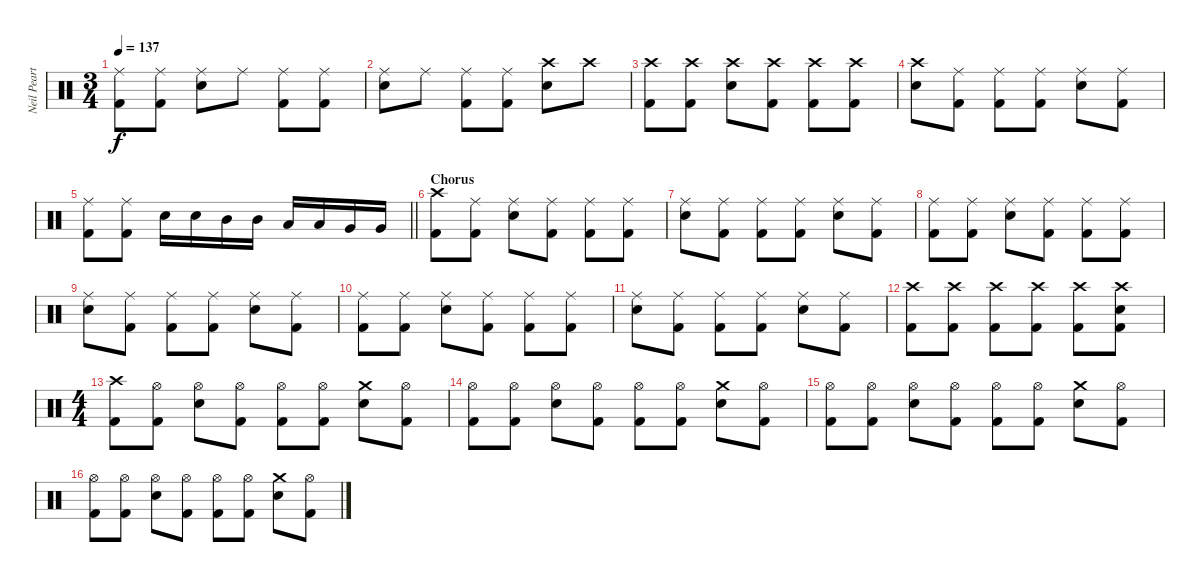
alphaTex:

\track ("Neil Peart" "Neil Peart") {instrument percussion}
\staff {score}
\articulation defaults
\ts (3 4)
\tempo 137
\clef neutral
\ks c
("Ride (middle)" "Kick (hit) 2").8{dy f} ("Ride (middle)" "Kick (hit) 2").8 ("Ride (middle)" "Snare (hit) 2").8 "Ride (middle)".8 ("Ride (middle)" "Kick (hit) 2").8 ("Ride (middle)" "Kick (hit) 2").8 |
("Ride (middle)" "Snare (hit) 2").8 "Ride (middle)".8 ("Ride (middle)" "Kick (hit) 2").8 ("Ride (middle)" "Kick (hit) 2").8 ("Crash high (hit)" "Snare (hit) 2").8 "Crash high (hit)".8 |
("Crash high (hit)" "Kick (hit) 2").8 ("Crash high (hit)" "Kick (hit) 2").8 ("Crash high (hit)" "Snare (hit) 2").8 ("Crash high (hit)" "Kick (hit) 2").8 ("Crash high (hit)" "Kick (hit) 2").8 ("Crash high (hit)" "Kick (hit) 2").8 |
("Crash high (hit)" "Snare (hit) 2").8 ("Ride (middle)" "Kick (hit) 2").8 ("Ride (middle)" "Kick (hit) 2").8 ("Ride (middle)" "Kick (hit) 2").8 ("Ride (middle)" "Snare (hit) 2").8 ("Ride (middle)" "Kick (hit) 2").8 |
\barLineRight lightlight
("Ride (middle)" "Kick (hit) 2").8 ("Ride (middle)" "Kick (hit) 2").8 "Snare (hit) 2".16 "Snare (hit) 2".16 "Mid Tom (hit)".16 "Mid Tom (hit)".16 "Low Tom (hit)".16 "Low Tom (hit)".16 "Very Low Tom (hit)".16 "Very Low Tom (hit)".16 |
\section ("" "Chorus")
("Crash high (hit)" "Kick (hit) 2").8 ("Ride (middle)" "Kick (hit) 2").8 ("Ride (middle)" "Snare (hit) 2").8 ("Ride (middle)" "Kick (hit) 2").8 ("Ride (middle)" "Kick (hit) 2").8 ("Ride (middle)" "Kick (hit) 2").8 |
("Ride (middle)" "Snare (hit) 2").8 ("Ride (middle)" "Kick (hit) 2").8 ("Ride (middle)" "Kick (hit) 2").8 ("Ride (middle)" "Kick (hit) 2").8 ("Ride (middle)" "Snare (hit) 2").8 ("Ride (middle)" "Kick (hit) 2").8 |
("Ride (middle)" "Kick (hit) 2").8 ("Ride (middle)" "Kick (hit) 2").8 ("Ride (middle)" "Snare (hit) 2").8 ("Ride (middle)" "Kick (hit) 2").8 ("Ride (middle)" "Kick (hit) 2").8 ("Ride (middle)" "Kick (hit) 2").8 |
("Ride (middle)" "Snare (hit) 2").8 ("Ride (middle)" "Kick (hit) 2").8 ("Ride (middle)" "Kick (hit) 2").8 ("Ride (middle)" "Kick (hit) 2").8 ("Ride (middle)" "Snare (hit) 2").8 ("Ride (middle)" "Kick (hit) 2").8 |
("Ride (middle)" "Kick (hit) 2").8 ("Ride (middle)" "Kick (hit) 2").8 ("Ride (middle)" "Snare (hit) 2").8 ("Ride (middle)" "Kick (hit) 2").8 ("Ride (middle)" "Kick (hit) 2").8 ("Ride (middle)" "Kick (hit) 2").8 |
("Ride (middle)" "Snare (hit) 2").8 ("Ride (middle)" "Kick (hit) 2").8 ("Ride (middle)" "Kick (hit) 2").8 ("Ride (middle)" "Kick (hit) 2").8 ("Ride (middle)" "Snare (hit) 2").8 ("Ride (middle)" "Kick (hit) 2").8 |
("Crash high (hit)" "Kick (hit) 2").8 ("Crash high (hit)" "Kick (hit) 2").8 ("Crash high (hit)" "Kick (hit) 2").8 ("Crash high (hit)" "Kick (hit) 2").8 ("Crash high (hit)" "Kick (hit) 2").8 ("Crash high (hit)" "Snare (hit) 2" "Kick (hit) 2").8 |
\ts (4 4)
("Crash high (hit)" "Kick (hit) 2").8 ("Hi-Hat (open)" "Kick (hit) 2").8 ("Hi-Hat (open)" "Snare (hit) 2").8 ("Hi-Hat (open)" "Kick (hit) 2").8 ("Hi-Hat (open)" "Kick (hit) 2").8 ("Hi-Hat (open)" "Kick (hit) 2").8 ("Crash medium (hit)" "Snare (hit) 2").8 ("Hi-Hat (open)" "Kick (hit) 2").8 |
("Hi-Hat (open)" "Kick (hit) 2").8 ("Hi-Hat (open)" "Kick (hit) 2").8 ("Hi-Hat (open)" "Snare (hit) 2").8 ("Hi-Hat (open)" "Kick (hit) 2").8 ("Hi-Hat (open)" "Kick (hit) 2").8 ("Hi-Hat (open)" "Kick (hit) 2").8 ("Crash medium (hit)" "Snare (hit) 2").8 ("Hi-Hat (open)" "Kick (hit) 2").8 |
("Hi-Hat (open)" "Kick (hit) 2").8 ("Hi-Hat (open)" "Kick (hit) 2").8 ("Hi-Hat (open)" "Snare (hit) 2").8 ("Hi-Hat (open)" "Kick (hit) 2").8 ("Hi-Hat (open)" "Kick (hit) 2").8 ("Hi-Hat (open)" "Kick (hit) 2").8 ("Crash medium (hit)" "Snare (hit) 2").8 ("Hi-Hat (open)" "Kick (hit) 2").8 |
("Hi-Hat (open)" "Kick (hit) 2").8 ("Hi-Hat (open)" "Kick (hit) 2").8 ("Hi-Hat (open)" "Snare (hit) 2").8 ("Hi-Hat (open)" "Kick (hit) 2").8 ("Hi-Hat (open)" "Kick (hit) 2").8 ("Hi-Hat (open)" "Kick (hit) 2").8 ("Crash medium (hit)" "Snare (hit) 2").8 ("Hi-Hat (open)" "Kick (hit) 2").8
